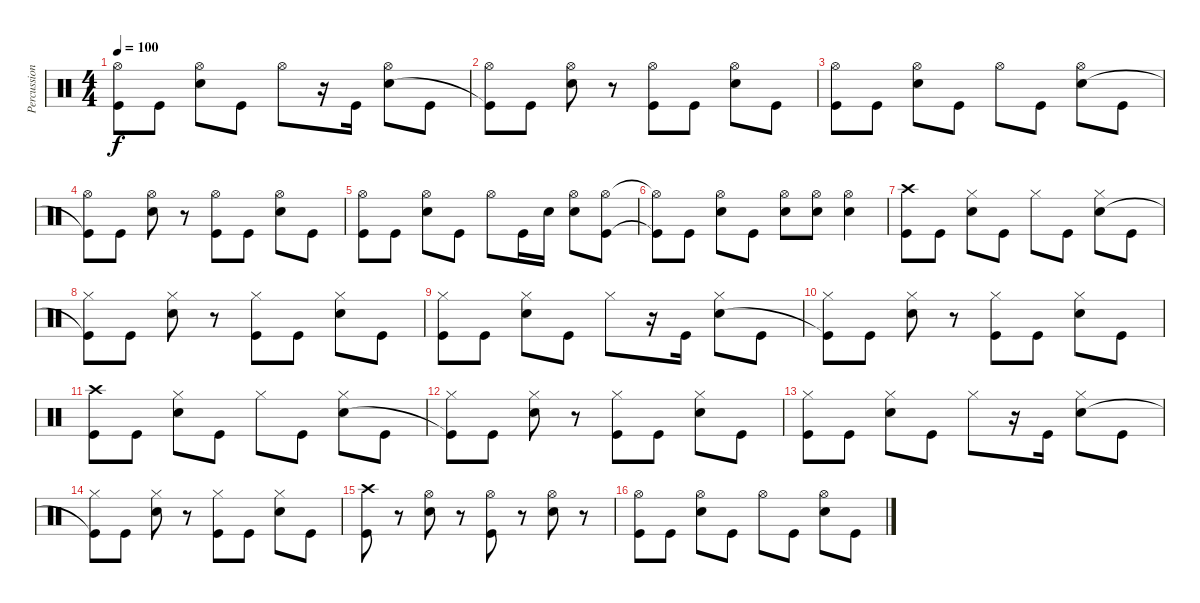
\track ("Percussion" "Percussion") {instrument percussion}
\staff {score}
\articulation defaults
\ts (4 4)
\tempo 100
\clef neutral
\ks c
("Hi-Hat (open)" "Kick (hit)").8{dy f} "Kick (hit)".8 ("Hi-Hat (open)" "Electric Snare (hit)").8 "Kick (hit)".8 "Hi-Hat (open)".8 r.16 "Kick (hit)".16 ("Hi-Hat (open)" "Electric Snare (hit)").8 "Kick (hit)".8 |
("Hi-Hat (open)" "Kick (hit)"{t}).8 "Kick (hit)".8 ("Hi-Hat (open)" "Electric Snare (hit)").8 r.8 ("Hi-Hat (open)" "Kick (hit)").8 "Kick (hit)".8 ("Hi-Hat (open)" "Electric Snare (hit)").8 "Kick (hit)".8 |
("Hi-Hat (open)" "Kick (hit)").8 "Kick (hit)".8 ("Hi-Hat (open)" "Electric Snare (hit)").8 "Kick (hit)".8 "Hi-Hat (open)".8 "Kick (hit)".8 ("Hi-Hat (open)" "Electric Snare (hit)").8 "Kick (hit)".8 |
("Hi-Hat (open)" "Kick (hit)"{t}).8 "Kick (hit)".8 ("Hi-Hat (open)" "Electric Snare (hit)").8 r.8 ("Hi-Hat (open)" "Kick (hit)").8 "Kick (hit)".8 ("Hi-Hat (open)" "Electric Snare (hit)").8 "Kick (hit)".8 |
("Hi-Hat (open)" "Kick (hit)").8 "Kick (hit)".8 ("Hi-Hat (open)" "Electric Snare (hit)").8 "Kick (hit)".8 "Hi-Hat (open)".8 "Kick (hit)".16 "Electric Snare (hit)".16 ("Hi-Hat (open)" "Electric Snare (hit)").8 ("Hi-Hat (open)" "Kick (hit)").8 |
("Hi-Hat (open)"{t} "Kick (hit)"{t}).8 "Kick (hit)".8 ("Hi-Hat (open)" "Electric Snare (hit)").8 "Kick (hit)".8 ("Hi-Hat (open)" "Electric Snare (hit)").8 ("Hi-Hat (open)" "Electric Snare (hit)").8 ("Hi-Hat (open)" "Electric Snare (hit)").4 |
("Crash high (hit)" "Kick (hit)").8 "Kick (hit)".8 ("Hi-Hat (closed)" "Electric Snare (hit)").8 "Kick (hit)".8 "Hi-Hat (closed)".8 "Kick (hit)".8 ("Hi-Hat (closed)" "Electric Snare (hit)").8 "Kick (hit)".8 |
("Hi-Hat (closed)" "Kick (hit)"{t}).8 "Kick (hit)".8 ("Hi-Hat (closed)" "Electric Snare (hit)").8 r.8 ("Hi-Hat (closed)" "Kick (hit)").8 "Kick (hit)".8 ("Hi-Hat (closed)" "Electric Snare (hit)").8 "Kick (hit)".8 |
("Hi-Hat (closed)" "Kick (hit)").8 "Kick (hit)".8 ("Hi-Hat (closed)" "Electric Snare (hit)").8 "Kick (hit)".8 "Hi-Hat (closed)".8 r.16 "Kick (hit)".16 ("Hi-Hat (closed)" "Electric Snare (hit)").8 "Kick (hit)".8 |
("Hi-Hat (closed)" "Kick (hit)"{t}).8 "Kick (hit)".8 ("Hi-Hat (closed)" "Electric Snare (hit)").8 r.8 ("Hi-Hat (closed)" "Kick (hit)").8 "Kick (hit)".8 ("Hi-Hat (closed)" "Electric Snare (hit)").8 "Kick (hit)".8 |
("Crash high (hit)" "Kick (hit)").8 "Kick (hit)".8 ("Hi-Hat (closed)" "Electric Snare (hit)").8 "Kick (hit)".8 "Hi-Hat (closed)".8 "Kick (hit)".8 ("Hi-Hat (closed)" "Electric Snare (hit)").8 "Kick (hit)".8 |
("Hi-Hat (closed)" "Kick (hit)"{t}).8 "Kick (hit)".8 ("Hi-Hat (closed)" "Electric Snare (hit)").8 r.8 ("Hi-Hat (closed)" "Kick (hit)").8 "Kick (hit)".8 ("Hi-Hat (closed)" "Electric Snare (hit)").8 "Kick (hit)".8 |
("Hi-Hat (closed)" "Kick (hit)").8 "Kick (hit)".8 ("Hi-Hat (closed)" "Electric Snare (hit)").8 "Kick (hit)".8 "Hi-Hat (closed)".8 r.16 "Kick (hit)".16 ("Hi-Hat (closed)" "Electric Snare (hit)").8 "Kick (hit)".8 |
("Hi-Hat (closed)" "Kick (hit)"{t}).8 "Kick (hit)".8 ("Hi-Hat (closed)" "Electric Snare (hit)").8 r.8 ("Hi-Hat (closed)" "Kick (hit)").8 "Kick (hit)".8 ("Hi-Hat (closed)" "Electric Snare (hit)").8 "Kick (hit)".8 |
("Crash high (hit)" "Kick (hit)").8 r.8 ("Hi-Hat (open)" "Electric Snare (hit)").8 r.8 ("Hi-Hat (open)" "Kick (hit)").8 r.8 ("Hi-Hat (open)" "Electric Snare (hit)").8 r.8 |
("Hi-Hat (open)" "Kick (hit)").8 "Kick (hit)".8 ("Hi-Hat (open)" "Electric Snare (hit)").8 "Kick (hit)".8 "Hi-Hat (open)".8 "Kick (hit)".8 ("Hi-Hat (open)" "Electric Snare (hit)").8 "Kick (hit)".8
